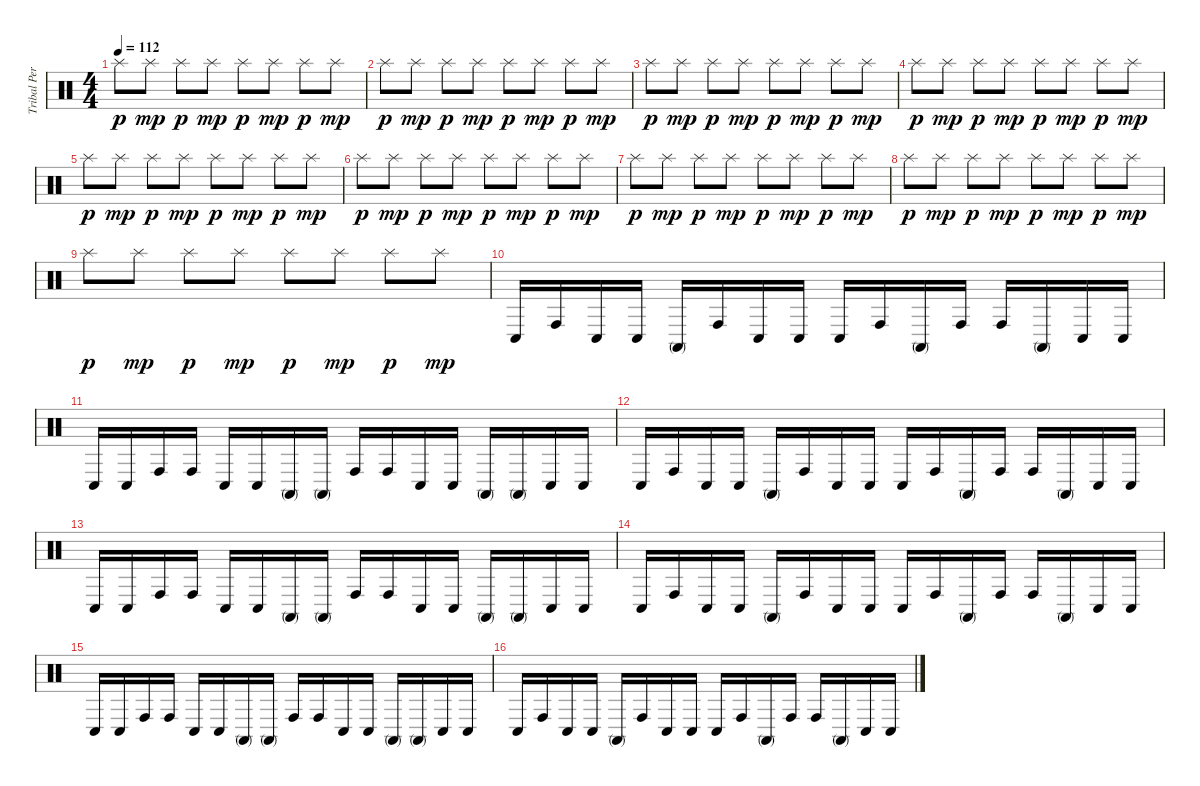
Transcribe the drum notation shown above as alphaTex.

\track ("Tribal Percussion" "Tribal Per") {instrument percussion}
\staff {score}
\articulation defaults
\ts (4 4)
\tempo 112
\clef neutral
\ks c "Splash (hit)".8{dy p} "Splash (hit)".8{dy mp} "Splash (hit)".8{dy p} "Splash (hit)".8{dy mp} "Splash (hit)".8{dy p} "Splash (hit)".8{dy mp} "Splash (hit)".8{dy p} "Splash (hit)".8{dy mp}
|
"Splash (hit)".8{dy p} "Splash (hit)".8{dy mp} "Splash (hit)".8{dy p} "Splash (hit)".8{dy mp} "Splash (hit)".8{dy p} "Splash (hit)".8{dy mp} "Splash (hit)".8{dy p} "Splash (hit)".8{dy mp} |
"Splash (hit)".8{dy p} "Splash (hit)".8{dy mp} "Splash (hit)".8{dy p} "Splash (hit)".8{dy mp} "Splash (hit)".8{dy p} "Splash (hit)".8{dy mp} "Splash (hit)".8{dy p} "Splash (hit)".8{dy mp} |
"Splash (hit)".8{dy p} "Splash (hit)".8{dy mp} "Splash (hit)".8{dy p} "Splash (hit)".8{dy mp} "Splash (hit)".8{dy p} "Splash (hit)".8{dy mp} "Splash (hit)".8{dy p} "Splash (hit)".8{dy mp} |
"Splash (hit)".8{dy p} "Splash (hit)".8{dy mp} "Splash (hit)".8{dy p} "Splash (hit)".8{dy mp} "Splash (hit)".8{dy p} "Splash (hit)".8{dy mp} "Splash (hit)".8{dy p} "Splash (hit)".8{dy mp} |
"Splash (hit)".8{dy p} "Splash (hit)".8{dy mp} "Splash (hit)".8{dy p} "Splash (hit)".8{dy mp} "Splash (hit)".8{dy p} "Splash (hit)".8{dy mp} "Splash (hit)".8{dy p} "Splash (hit)".8{dy mp} |
"Splash (hit)".8{dy p} "Splash (hit)".8{dy mp} "Splash (hit)".8{dy p} "Splash (hit)".8{dy mp} "Splash (hit)".8{dy p} "Splash (hit)".8{dy mp} "Splash (hit)".8{dy p} "Splash (hit)".8{dy mp} |
"Splash (hit)".8{dy p} "Splash (hit)".8{dy mp} "Splash (hit)".8{dy p} "Splash (hit)".8{dy mp} "Splash (hit)".8{dy p} "Splash (hit)".8{dy mp} "Splash (hit)".8{dy p} "Splash (hit)".8{dy mp} |
"Splash (hit)".8{dy p} "Splash (hit)".8{dy mp} "Splash (hit)".8{dy p} "Splash (hit)".8{dy mp} "Splash (hit)".8{dy p} "Splash (hit)".8{dy mp} "Splash (hit)".8{dy p} "Splash (hit)".8{dy mp} |
"Conga low (hit)".16 "Conga high (hit)".16 "Conga low (hit)".16 "Conga low (hit)".16 "Conga high (mute)".16 "Conga high (hit)".16 "Conga low (hit)".16 "Conga low (hit)".16 "Conga low (hit)".16 "Conga high (hit)".16 "Conga high (mute)".16 "Conga high (hit)".16 "Conga high (hit)".16 "Conga high (mute)".16 "Conga low (hit)".16 "Conga low (hit)".16 |
"Conga low (hit)".16 "Conga low (hit)".16 "Conga high (hit)".16 "Conga high (hit)".16 "Conga low (hit)".16 "Conga low (hit)".16 "Conga high (mute)".16 "Conga high (mute)".16 "Conga high (hit)".16 "Conga high (hit)".16 "Conga low (hit)".16 "Conga low (hit)".16 "Conga high (mute)".16 "Conga high (mute)".16 "Conga low (hit)".16 "Conga low (hit)".16 |
"Conga low (hit)".16 "Conga high (hit)".16 "Conga low (hit)".16 "Conga low (hit)".16 "Conga high (mute)".16 "Conga high (hit)".16 "Conga low (hit)".16 "Conga low (hit)".16 "Conga low (hit)".16 "Conga high (hit)".16 "Conga high (mute)".16 "Conga high (hit)".16 "Conga high (hit)".16 "Conga high (mute)".16 "Conga low (hit)".16 "Conga low (hit)".16 |
"Conga low (hit)".16 "Conga low (hit)".16 "Conga high (hit)".16 "Conga high (hit)".16 "Conga low (hit)".16 "Conga low (hit)".16 "Conga high (mute)".16 "Conga high (mute)".16 "Conga high (hit)".16 "Conga high (hit)".16 "Conga low (hit)".16 "Conga low (hit)".16 "Conga high (mute)".16 "Conga high (mute)".16 "Conga low (hit)".16 "Conga low (hit)".16 |
"Conga low (hit)".16 "Conga high (hit)".16 "Conga low (hit)".16 "Conga low (hit)".16 "Conga high (mute)".16 "Conga high (hit)".16 "Conga low (hit)".16 "Conga low (hit)".16 "Conga low (hit)".16 "Conga high (hit)".16 "Conga high (mute)".16 "Conga high (hit)".16 "Conga high (hit)".16 "Conga high (mute)".16 "Conga low (hit)".16 "Conga low (hit)".16 |
"Conga low (hit)".16 "Conga low (hit)".16 "Conga high (hit)".16 "Conga high (hit)".16 "Conga low (hit)".16 "Conga low (hit)".16 "Conga high (mute)".16 "Conga high (mute)".16 "Conga high (hit)".16 "Conga high (hit)".16 "Conga low (hit)".16 "Conga low (hit)".16 "Conga high (mute)".16 "Conga high (mute)".16 "Conga low (hit)".16 "Conga low (hit)".16 |
"Conga low (hit)".16 "Conga high (hit)".16 "Conga low (hit)".16 "Conga low (hit)".16 "Conga high (mute)".16 "Conga high (hit)".16 "Conga low (hit)".16 "Conga low (hit)".16 "Conga low (hit)".16 "Conga high (hit)".16 "Conga high (mute)".16 "Conga high (hit)".16 "Conga high (hit)".16 "Conga high (mute)".16 "Conga low (hit)".16 "Conga low (hit)".16
